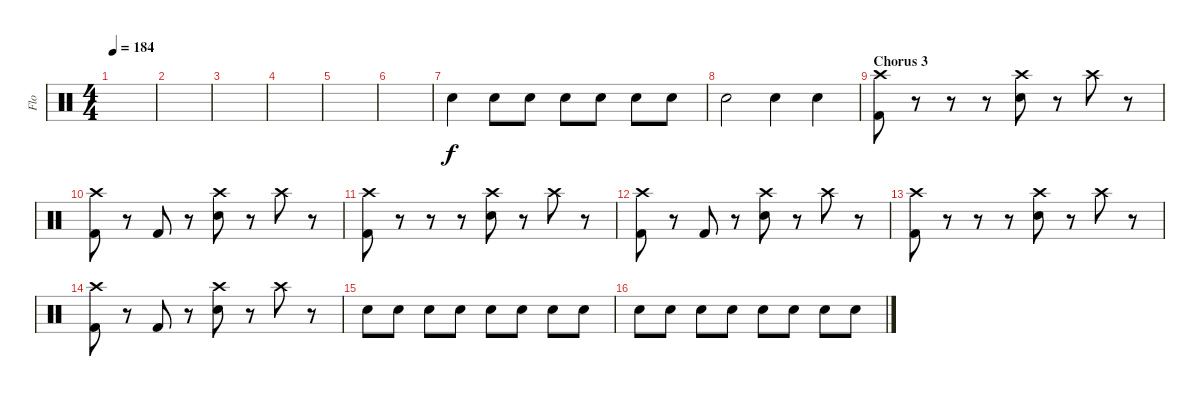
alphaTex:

\track ("Flo" "Flo") {instrument percussion}
\staff {score}
\articulation defaults
\ts (4 4)
\tempo 184
\clef neutral
\ks c
|
|
|
|
|
|
"Electric Snare (hit)".4 "Electric Snare (hit)".8 "Electric Snare (hit)".8 "Electric Snare (hit)".8 "Electric Snare (hit)".8 "Electric Snare (hit)".8 "Electric Snare (hit)".8 |
"Electric Snare (hit)".2 "Electric Snare (hit)".4 "Electric Snare (hit)".4 |
\section ("" "Chorus 3")
("Crash high (hit)" "Kick (hit) 2").8 r.8 r.8 r.8 ("Crash high (hit)" "Electric Snare (hit)").8 r.8 "Crash high (hit)".8 r.8 |
("Crash high (hit)" "Kick (hit) 2").8 r.8 "Kick (hit) 2".8 r.8 ("Crash high (hit)" "Electric Snare (hit)").8 r.8 "Crash high (hit)".8 r.8 |
("Crash high (hit)" "Kick (hit) 2").8 r.8 r.8 r.8 ("Crash high (hit)" "Electric Snare (hit)").8 r.8 "Crash high (hit)".8 r.8 |
("Crash high (hit)" "Kick (hit) 2").8 r.8 "Kick (hit) 2".8 r.8 ("Crash high (hit)" "Electric Snare (hit)").8 r.8 "Crash high (hit)".8 r.8 |
("Crash high (hit)" "Kick (hit) 2").8 r.8 r.8 r.8 ("Crash high (hit)" "Electric Snare (hit)").8 r.8 "Crash high (hit)".8 r.8 |
("Crash high (hit)" "Kick (hit) 2").8 r.8 "Kick (hit) 2".8 r.8 ("Crash high (hit)" "Electric Snare (hit)").8 r.8 "Crash high (hit)".8 r.8 |
"Electric Snare (hit)".8 "Electric Snare (hit)".8 "Electric Snare (hit)".8 "Electric Snare (hit)".8 "Electric Snare (hit)".8 "Electric Snare (hit)".8 "Electric Snare (hit)".8 "Electric Snare (hit)".8 |
"Electric Snare (hit)".8 "Electric Snare (hit)".8 "Electric Snare (hit)".8 "Electric Snare (hit)".8 "Electric Snare (hit)".8 "Electric Snare (hit)".8 "Electric Snare (hit)".8 "Electric Snare (hit)".8
